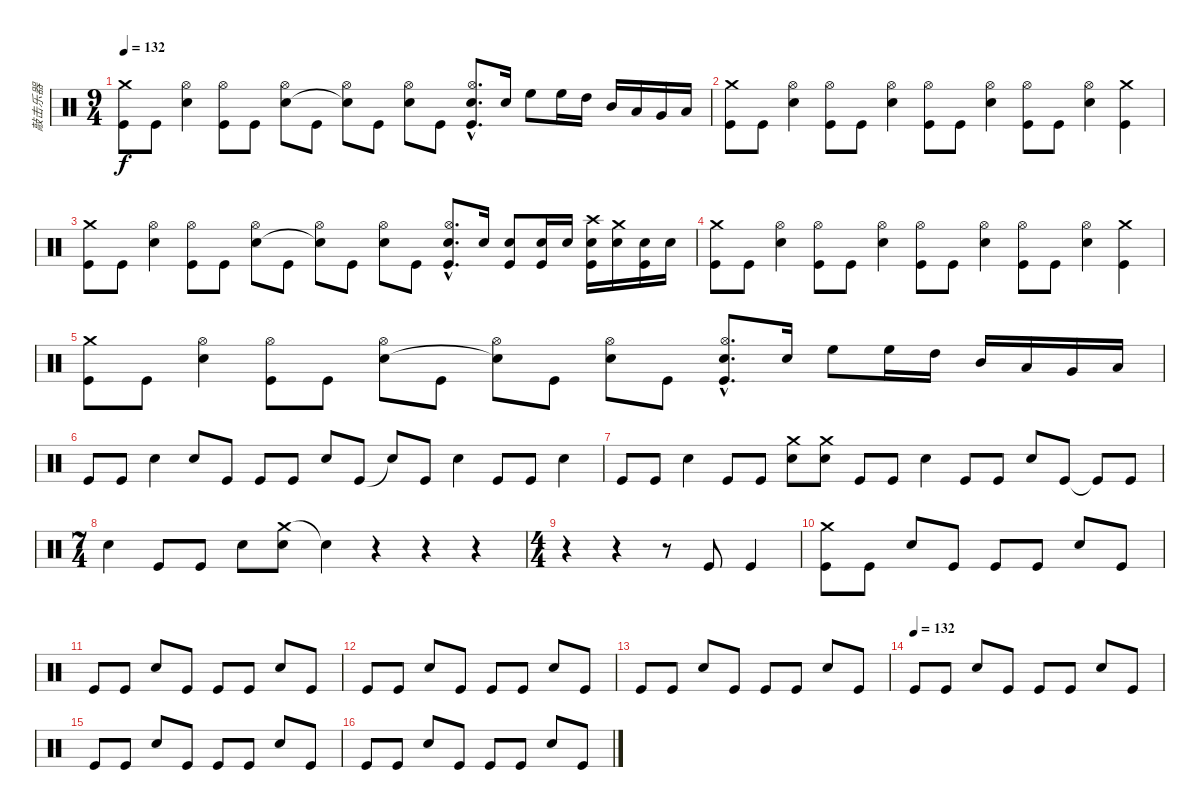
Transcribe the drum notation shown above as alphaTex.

\track ("敲击乐器" "敲击乐器") {instrument percussion}
\staff {score}
\articulation defaults
\ts (9 4)
\tempo 132
\clef neutral
\ks c
("Crash medium (hit)" "Kick (hit)").8{dy f} "Kick (hit)".8 ("Hi-Hat (open)" "Snare (hit) 2").4 ("Hi-Hat (open)" "Kick (hit)").8 "Kick (hit)".8 ("Hi-Hat (open)" "Snare (hit) 2").8 "Kick (hit)".8 ("Hi-Hat (open)" "Snare (hit)"{t}).8 "Kick (hit)".8 ("Hi-Hat (open)" "Snare (hit) 2").8 "Kick (hit)".8 ("Hi-Hat (open)"{hac} "Snare (hit) 2"{hac} "Kick (hit)"{hac}).8{d} "Snare (hit) 2".16 "High Floor Tom (hit)".8 "High Floor Tom (hit)".16 "High Tom (hit)".16 "Mid Tom (hit)".16 "Low Tom (hit)".16 "Very Low Tom (hit)".16 "Low Floor Tom (hit)".16 |
("Crash medium (hit)" "Kick (hit)").8 "Kick (hit)".8 ("Hi-Hat (open)" "Snare (hit) 2").4 ("Hi-Hat (open)" "Kick (hit)").8 "Kick (hit)".8 ("Hi-Hat (open)" "Snare (hit) 2").4 ("Hi-Hat (open)" "Kick (hit)").8 "Kick (hit)".8 ("Hi-Hat (open)" "Snare (hit) 2").4 ("Hi-Hat (open)" "Kick (hit)").8 "Kick (hit)".8 ("Hi-Hat (open)" "Snare (hit) 2").4 ("Crash medium (hit)" "Kick (hit)").4 |
("Crash medium (hit)" "Kick (hit)").8 "Kick (hit)".8 ("Hi-Hat (open)" "Snare (hit) 2").4 ("Hi-Hat (open)" "Kick (hit)").8 "Kick (hit)".8 ("Hi-Hat (open)" "Snare (hit) 2").8 "Kick (hit)".8 ("Hi-Hat (open)" "Snare (hit)"{t}).8 "Kick (hit)".8 ("Hi-Hat (open)" "Snare (hit) 2").8 "Kick (hit)".8 ("Hi-Hat (open)"{hac} "Snare (hit) 2"{hac} "Kick (hit)"{hac}).8{d} "Snare (hit) 2".16 ("Snare (hit) 2" "Kick (hit)").8 ("Snare (hit) 2" "Kick (hit)").16 "Snare (hit) 2".16 ("Crash high (hit)" "Snare (hit) 2" "Kick (hit)").16 ("Crash medium (hit)" "Snare (hit) 2").16 ("Snare (hit) 2" "Kick (hit)").16 "Snare (hit) 2".16 |
("Crash medium (hit)" "Kick (hit)").8 "Kick (hit)".8 ("Hi-Hat (open)" "Snare (hit) 2").4 ("Hi-Hat (open)" "Kick (hit)").8 "Kick (hit)".8 ("Hi-Hat (open)" "Snare (hit) 2").4 ("Hi-Hat (open)" "Kick (hit)").8 "Kick (hit)".8 ("Hi-Hat (open)" "Snare (hit) 2").4 ("Hi-Hat (open)" "Kick (hit)").8 "Kick (hit)".8 ("Hi-Hat (open)" "Snare (hit) 2").4 ("Crash medium (hit)" "Kick (hit)").4 |
("Crash medium (hit)" "Kick (hit)").8 "Kick (hit)".8 ("Hi-Hat (open)" "Snare (hit) 2").4 ("Hi-Hat (open)" "Kick (hit)").8 "Kick (hit)".8 ("Hi-Hat (open)" "Snare (hit) 2").8 "Kick (hit)".8 ("Hi-Hat (open)" "Snare (hit)"{t}).8 "Kick (hit)".8 ("Hi-Hat (open)" "Snare (hit) 2").8 "Kick (hit)".8 ("Hi-Hat (open)"{hac} "Snare (hit) 2"{hac} "Kick (hit)"{hac}).8{d} "Snare (hit) 2".16 "High Floor Tom (hit)".8 "High Floor Tom (hit)".16 "High Tom (hit)".16 "Mid Tom (hit)".16 "Low Tom (hit)".16 "Very Low Tom (hit)".16 "Low Floor Tom (hit)".16 |
"Kick (hit)".8 "Kick (hit)".8 "Snare (hit) 2".4 "Snare (hit) 2".8 "Kick (hit)".8 "Kick (hit)".8 "Kick (hit)".8 "Snare (hit) 2".8 "Kick (hit)".8 "Snare (hit)"{t}.8 "Kick (hit)".8 "Snare (hit) 2".4 "Kick (hit)".8 "Kick (hit)".8 "Snare (hit) 2".4 |
"Kick (hit)".8 "Kick (hit)".8 "Snare (hit) 2".4 "Kick (hit)".8 "Kick (hit)".8 ("Crash medium (hit)" "Snare (hit) 2").8 ("Crash medium (hit)" "Snare (hit) 2").8 "Kick (hit)".8 "Kick (hit)".8 "Snare (hit) 2".4 "Kick (hit)".8 "Kick (hit)".8 "Snare (hit) 2".8 "Kick (hit)".8 "Kick (hit)"{t}.8 "Kick (hit)".8 |
\ts (7 4)
"Snare (hit) 2".4 "Kick (hit)".8 "Kick (hit)".8 "Snare (hit) 2".8 ("Crash medium (hit)" "Snare (hit) 2").8 "Snare (hit)"{t}.4 r.4 r.4 r.4 |
\ts (4 4)
r.4 r.4 r.8 "Kick (hit)".8 "Kick (hit)".4 |
("Crash medium (hit)" "Kick (hit)").8 "Kick (hit)".8 "Snare (hit) 2".8 "Kick (hit)".8 "Kick (hit)".8 "Kick (hit)".8 "Snare (hit) 2".8 "Kick (hit)".8 |
"Kick (hit)".8 "Kick (hit)".8 "Snare (hit) 2".8 "Kick (hit)".8 "Kick (hit)".8 "Kick (hit)".8 "Snare (hit) 2".8 "Kick (hit)".8 |
"Kick (hit)".8 "Kick (hit)".8 "Snare (hit) 2".8 "Kick (hit)".8 "Kick (hit)".8 "Kick (hit)".8 "Snare (hit) 2".8 "Kick (hit)".8 |
"Kick (hit)".8 "Kick (hit)".8 "Snare (hit) 2".8 "Kick (hit)".8 "Kick (hit)".8 "Kick (hit)".8 "Snare (hit) 2".8 "Kick (hit)".8 |
\tempo (132)
"Kick (hit)".8 "Kick (hit)".8 "Snare (hit) 2".8 "Kick (hit)".8 "Kick (hit)".8 "Kick (hit)".8 "Snare (hit) 2".8 "Kick (hit)".8 |
"Kick (hit)".8 "Kick (hit)".8 "Snare (hit) 2".8 "Kick (hit)".8 "Kick (hit)".8 "Kick (hit)".8 "Snare (hit) 2".8 "Kick (hit)".8 |
"Kick (hit)".8 "Kick (hit)".8 "Snare (hit) 2".8 "Kick (hit)".8 "Kick (hit)".8 "Kick (hit)".8 "Snare (hit) 2".8 "Kick (hit)".8
